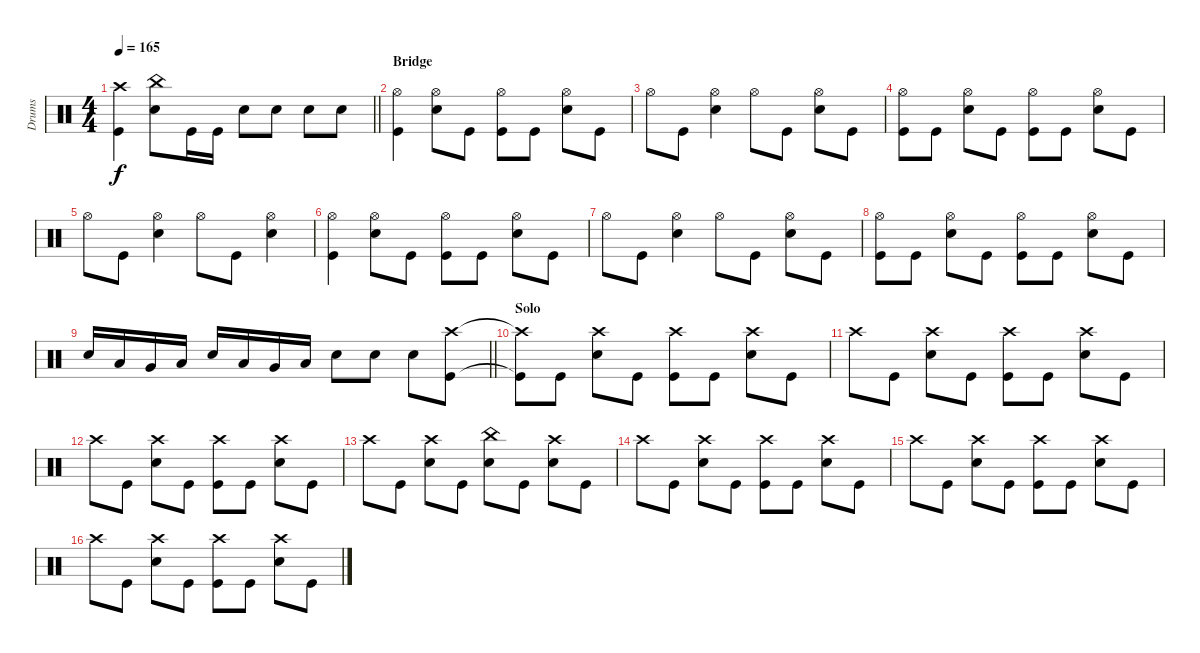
\track ("Drums" "Drums") {instrument percussion}
\staff {score}
\articulation defaults
\ts (4 4)
\tempo 165
\clef neutral
\barLineRight lightlight
\ks c
("Kick (hit)" "Crash high (hit)").4{dy f} ("Snare (hit) 2" "China (hit)").8 "Kick (hit)".16 "Kick (hit)".16 "Snare (hit) 2".8 "Snare (hit) 2".8 "Snare (hit) 2".8 "Snare (hit) 2".8 |
\section ("" "Bridge")
("Kick (hit)" "Hi-Hat (open)").4 ("Snare (hit) 2" "Hi-Hat (open)").8 "Kick (hit)".8 ("Kick (hit)" "Hi-Hat (open)").8 "Kick (hit)".8 ("Snare (hit) 2" "Hi-Hat (open)").8 "Kick (hit)".8 |
"Hi-Hat (open)".8 "Kick (hit)".8 ("Snare (hit) 2" "Hi-Hat (open)").4 "Hi-Hat (open)".8 "Kick (hit)".8 ("Snare (hit) 2" "Hi-Hat (open)").8 "Kick (hit)".8 |
("Kick (hit)" "Hi-Hat (open)").8 "Kick (hit)".8 ("Snare (hit) 2" "Hi-Hat (open)").8 "Kick (hit)".8 ("Kick (hit)" "Hi-Hat (open)").8 "Kick (hit)".8 ("Snare (hit) 2" "Hi-Hat (open)").8 "Kick (hit)".8 |
"Hi-Hat (open)".8 "Kick (hit)".8 ("Snare (hit) 2" "Hi-Hat (open)").4 "Hi-Hat (open)".8 "Kick (hit)".8 ("Snare (hit) 2" "Hi-Hat (open)").4 |
("Kick (hit)" "Hi-Hat (open)").4 ("Snare (hit) 2" "Hi-Hat (open)").8 "Kick (hit)".8 ("Kick (hit)" "Hi-Hat (open)").8 "Kick (hit)".8 ("Snare (hit) 2" "Hi-Hat (open)").8 "Kick (hit)".8 |
"Hi-Hat (open)".8 "Kick (hit)".8 ("Snare (hit) 2" "Hi-Hat (open)").4 "Hi-Hat (open)".8 "Kick (hit)".8 ("Snare (hit) 2" "Hi-Hat (open)").8 "Kick (hit)".8 |
("Kick (hit)" "Hi-Hat (open)").8 "Kick (hit)".8 ("Snare (hit) 2" "Hi-Hat (open)").8 "Kick (hit)".8 ("Kick (hit)" "Hi-Hat (open)").8 "Kick (hit)".8 ("Snare (hit) 2" "Hi-Hat (open)").8 "Kick (hit)".8 |
\barLineRight lightlight "Snare (hit) 2".16 "Low Tom (hit)".16 "Very Low Tom (hit)".16 "Low Floor Tom (hit)".16 "Snare (hit) 2".16 "Low Tom (hit)".16 "Very Low Tom (hit)".16 "Low Floor Tom (hit)".16 "Snare (hit) 2".8 "Snare (hit) 2".8 "Snare (hit) 2".8
("Kick (hit)" "Crash high (hit)").8 |
\section ("" "Solo")
("Kick (hit)"{t} "Crash high (hit)"{t}).8 "Kick (hit)".8 ("Snare (hit) 2" "Crash high (hit)").8 "Kick (hit)".8 ("Kick (hit)" "Crash high (hit)").8 "Kick (hit)".8 ("Crash high (hit)" "Snare (hit) 2").8 "Kick (hit)".8 |
"Crash high (hit)".8 "Kick (hit)".8 ("Snare (hit) 2" "Crash high (hit)").8 "Kick (hit)".8 ("Kick (hit)" "Crash high (hit)").8 "Kick (hit)".8 ("Snare (hit) 2" "Crash high (hit)").8 "Kick (hit)".8 |
"Crash high (hit)".8 "Kick (hit)".8 ("Snare (hit) 2" "Crash high (hit)").8 "Kick (hit)".8 ("Kick (hit)" "Crash high (hit)").8 "Kick (hit)".8 ("Snare (hit) 2" "Crash high (hit)").8 "Kick (hit)".8 |
"Crash high (hit)".8 "Kick (hit)".8 ("Snare (hit) 2" "Crash high (hit)").8 "Kick (hit)".8 ("Snare (hit) 2" "China (hit)").8 "Kick (hit)".8 ("Snare (hit) 2" "Crash high (hit)").8 "Kick (hit)".8 |
"Crash high (hit)".8 "Kick (hit)".8 ("Snare (hit) 2" "Crash high (hit)").8 "Kick (hit)".8 ("Kick (hit)" "Crash high (hit)").8 "Kick (hit)".8 ("Snare (hit) 2" "Crash high (hit)").8 "Kick (hit)".8 |
"Crash high (hit)".8 "Kick (hit)".8 ("Snare (hit) 2" "Crash high (hit)").8 "Kick (hit)".8 ("Kick (hit)" "Crash high (hit)").8 "Kick (hit)".8 ("Snare (hit) 2" "Crash high (hit)").8 "Kick (hit)".8 |
"Crash high (hit)".8 "Kick (hit)".8 ("Snare (hit) 2" "Crash high (hit)").8 "Kick (hit)".8 ("Kick (hit)" "Crash high (hit)").8 "Kick (hit)".8 ("Snare (hit) 2" "Crash high (hit)").8 "Kick (hit)".8
